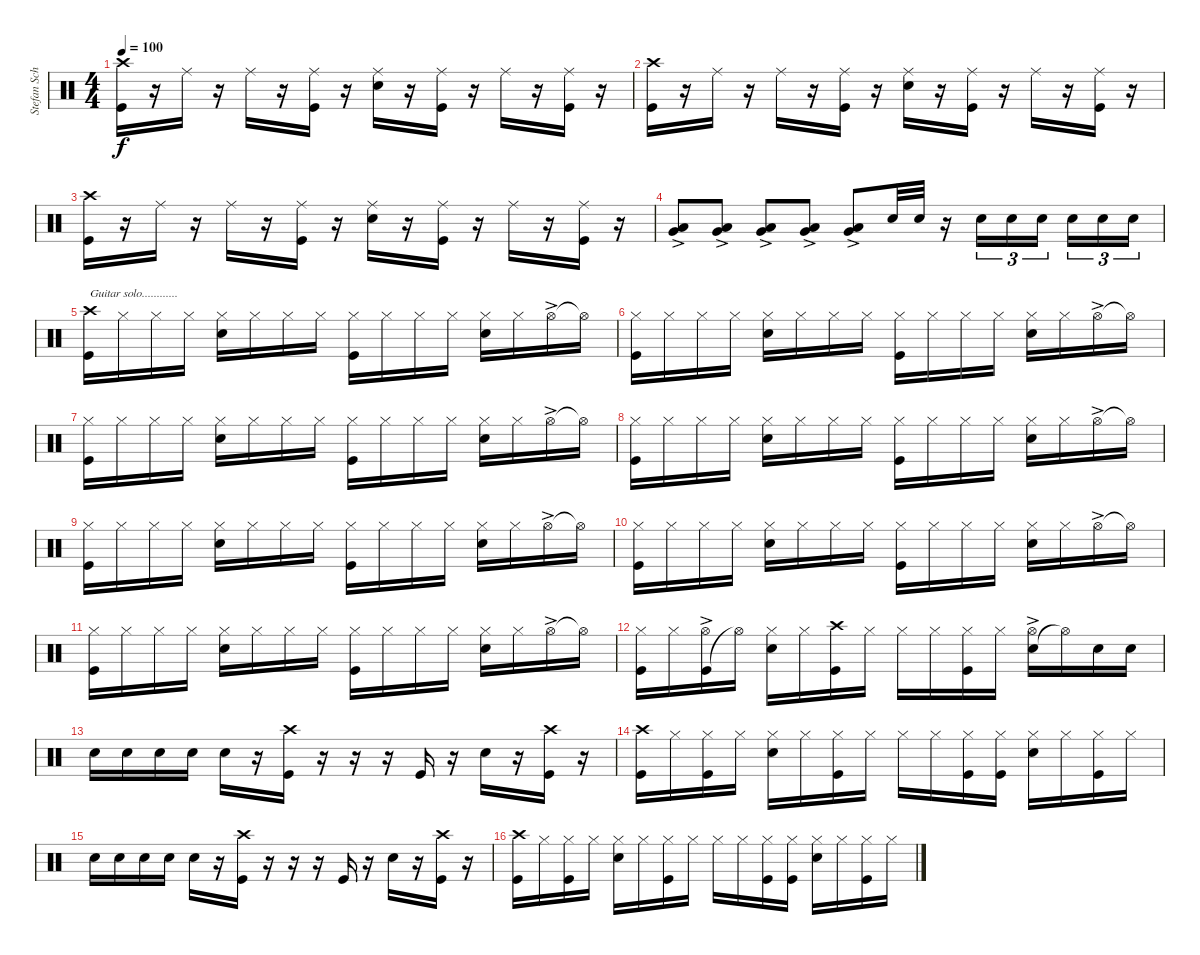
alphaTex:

\track ("Stefan Schwarzmann" "Stefan Sch") {instrument percussion}
\staff {score}
\articulation defaults
\ts (4 4)
\tempo 100
\clef neutral
\ks c
("Kick (hit)" "Crash high (hit)").16{dy f} r.16 "Ride (middle)".16 r.16 "Ride (middle)".16 r.16 ("Kick (hit)" "Ride (middle)").16 r.16 ("Snare (hit) 2" "Ride (middle)").16 r.16 ("Kick (hit)" "Ride (middle)").16 r.16 "Ride (middle)".16 r.16 ("Kick (hit)" "Ride (middle)").16 r.16 |
("Kick (hit)" "Crash high (hit)").16 r.16 "Ride (middle)".16 r.16 "Ride (middle)".16 r.16 ("Kick (hit)" "Ride (middle)").16 r.16 ("Snare (hit) 2" "Ride (middle)").16 r.16 ("Kick (hit)" "Ride (middle)").16 r.16 "Ride (middle)".16 r.16 ("Kick (hit)" "Ride (middle)").16 r.16 |
("Kick (hit)" "Crash high (hit)").16 r.16 "Ride (middle)".16 r.16 "Ride (middle)".16 r.16 ("Kick (hit)" "Ride (middle)").16 r.16 ("Snare (hit) 2" "Ride (middle)").16 r.16 ("Kick (hit)" "Ride (middle)").16 r.16 "Ride (middle)".16 r.16 ("Kick (hit)" "Ride (middle)").16 r.16 |
("Very Low Tom (hit)"{ac} "Low Floor Tom (hit)"{ac}).8 ("Very Low Tom (hit)"{ac} "Low Floor Tom (hit)"{ac}).8 ("Very Low Tom (hit)"{ac} "Low Floor Tom (hit)"{ac}).8 ("Very Low Tom (hit)"{ac} "Low Floor Tom (hit)"{ac}).8 ("Very Low Tom (hit)"{ac} "Low Floor Tom (hit)"{ac}).8 "Snare (hit) 2".32 "Snare (hit) 2".32 r.16 "Snare (hit) 2".16{tu (3 2)} "Snare (hit) 2".16{tu (3 2)} "Snare (hit) 2".16{tu (3 2)} "Snare (hit) 2".16{tu (3 2)} "Snare (hit) 2".16{tu (3 2)} "Snare (hit) 2".16{tu (3 2)} |
("Kick (hit)" "Crash high (hit)").16{txt "Guitar solo............"} "Hi-Hat (closed)".16 "Hi-Hat (closed)".16 "Hi-Hat (closed)".16 ("Snare (hit) 2" "Hi-Hat (closed)").16 "Hi-Hat (closed)".16 "Hi-Hat (closed)".16 "Hi-Hat (closed)".16 ("Kick (hit)" "Hi-Hat (closed)").16 "Hi-Hat (closed)".16 "Hi-Hat (closed)".16 "Hi-Hat (closed)".16 ("Snare (hit) 2" "Hi-Hat (closed)").16 "Hi-Hat (closed)".16 "Hi-Hat (open)"{ac}.16 "Hi-Hat (open)"{t}.16 |
("Kick (hit)" "Hi-Hat (closed)").16 "Hi-Hat (closed)".16 "Hi-Hat (closed)".16 "Hi-Hat (closed)".16 ("Snare (hit) 2" "Hi-Hat (closed)").16 "Hi-Hat (closed)".16 "Hi-Hat (closed)".16 "Hi-Hat (closed)".16 ("Kick (hit)" "Hi-Hat (closed)").16 "Hi-Hat (closed)".16 "Hi-Hat (closed)".16 "Hi-Hat (closed)".16 ("Snare (hit) 2" "Hi-Hat (closed)").16 "Hi-Hat (closed)".16 "Hi-Hat (open)"{ac}.16 "Hi-Hat (open)"{t}.16 |
("Kick (hit)" "Hi-Hat (closed)").16 "Hi-Hat (closed)".16 "Hi-Hat (closed)".16 "Hi-Hat (closed)".16 ("Snare (hit) 2" "Hi-Hat (closed)").16 "Hi-Hat (closed)".16 "Hi-Hat (closed)".16 "Hi-Hat (closed)".16 ("Kick (hit)" "Hi-Hat (closed)").16 "Hi-Hat (closed)".16 "Hi-Hat (closed)".16 "Hi-Hat (closed)".16 ("Snare (hit) 2" "Hi-Hat (closed)").16 "Hi-Hat (closed)".16 "Hi-Hat (open)"{ac}.16 "Hi-Hat (open)"{t}.16 |
("Kick (hit)" "Hi-Hat (closed)").16 "Hi-Hat (closed)".16 "Hi-Hat (closed)".16 "Hi-Hat (closed)".16 ("Snare (hit) 2" "Hi-Hat (closed)").16 "Hi-Hat (closed)".16 "Hi-Hat (closed)".16 "Hi-Hat (closed)".16 ("Kick (hit)" "Hi-Hat (closed)").16 "Hi-Hat (closed)".16 "Hi-Hat (closed)".16 "Hi-Hat (closed)".16 ("Snare (hit) 2" "Hi-Hat (closed)").16 "Hi-Hat (closed)".16 "Hi-Hat (open)"{ac}.16 "Hi-Hat (open)"{t}.16 |
("Kick (hit)" "Hi-Hat (closed)").16 "Hi-Hat (closed)".16 "Hi-Hat (closed)".16 "Hi-Hat (closed)".16 ("Snare (hit) 2" "Hi-Hat (closed)").16 "Hi-Hat (closed)".16 "Hi-Hat (closed)".16 "Hi-Hat (closed)".16 ("Kick (hit)" "Hi-Hat (closed)").16 "Hi-Hat (closed)".16 "Hi-Hat (closed)".16 "Hi-Hat (closed)".16 ("Snare (hit) 2" "Hi-Hat (closed)").16 "Hi-Hat (closed)".16 "Hi-Hat (open)"{ac}.16 "Hi-Hat (open)"{t}.16 |
("Kick (hit)" "Hi-Hat (closed)").16 "Hi-Hat (closed)".16 "Hi-Hat (closed)".16 "Hi-Hat (closed)".16 ("Snare (hit) 2" "Hi-Hat (closed)").16 "Hi-Hat (closed)".16 "Hi-Hat (closed)".16 "Hi-Hat (closed)".16 ("Kick (hit)" "Hi-Hat (closed)").16 "Hi-Hat (closed)".16 "Hi-Hat (closed)".16 "Hi-Hat (closed)".16 ("Snare (hit) 2" "Hi-Hat (closed)").16 "Hi-Hat (closed)".16 "Hi-Hat (open)"{ac}.16 "Hi-Hat (open)"{t}.16 |
("Kick (hit)" "Hi-Hat (closed)").16 "Hi-Hat (closed)".16 "Hi-Hat (closed)".16 "Hi-Hat (closed)".16 ("Snare (hit) 2" "Hi-Hat (closed)").16 "Hi-Hat (closed)".16 "Hi-Hat (closed)".16 "Hi-Hat (closed)".16 ("Kick (hit)" "Hi-Hat (closed)").16 "Hi-Hat (closed)".16 "Hi-Hat (closed)".16 "Hi-Hat (closed)".16 ("Snare (hit) 2" "Hi-Hat (closed)").16 "Hi-Hat (closed)".16 "Hi-Hat (open)"{ac}.16 "Hi-Hat (open)"{t}.16 |
("Kick (hit)" "Hi-Hat (closed)").16 "Hi-Hat (closed)".16 ("Kick (hit)" "Hi-Hat (open)"{ac}).16 "Hi-Hat (open)"{t}.16 ("Snare (hit) 2" "Hi-Hat (closed)").16 "Hi-Hat (closed)".16 ("Kick (hit)" "Crash high (hit)").16 "Hi-Hat (closed)".16 "Hi-Hat (closed)".16 "Hi-Hat (closed)".16 ("Hi-Hat (closed)" "Kick (hit)").16 "Hi-Hat (closed)".16 ("Snare (hit) 2" "Hi-Hat (open)"{ac}).16 "Hi-Hat (open)"{t}.16 "Snare (hit) 2".16 "Snare (hit) 2".16 |
"Snare (hit) 2".16 "Snare (hit) 2".16 "Snare (hit) 2".16 "Snare (hit) 2".16 "Snare (hit) 2".16 r.16 ("Kick (hit)" "Crash high (hit)").16 r.16 r.16 r.16 "Kick (hit)".16 r.16 "Snare (hit) 2".16 r.16 ("Kick (hit)" "Crash high (hit)").16 r.16 |
("Kick (hit)" "Crash high (hit)").16 "Hi-Hat (closed)".16 ("Hi-Hat (closed)" "Kick (hit)").16 "Hi-Hat (closed)".16 ("Snare (hit) 2" "Hi-Hat (closed)").16 "Hi-Hat (closed)".16 ("Hi-Hat (closed)" "Kick (hit)").16 "Hi-Hat (closed)".16 "Hi-Hat (closed)".16 "Hi-Hat (closed)".16 ("Hi-Hat (closed)" "Kick (hit)").16 ("Hi-Hat (closed)" "Kick (hit)").16 ("Snare (hit) 2" "Hi-Hat (closed)").16 "Hi-Hat (closed)".16 ("Hi-Hat (closed)" "Kick (hit)").16 "Hi-Hat (closed)".16 |
"Snare (hit) 2".16 "Snare (hit) 2".16 "Snare (hit) 2".16 "Snare (hit) 2".16 "Snare (hit) 2".16 r.16 ("Kick (hit)" "Crash high (hit)").16 r.16 r.16 r.16 "Kick (hit)".16 r.16 "Snare (hit) 2".16 r.16 ("Kick (hit)" "Crash high (hit)").16 r.16 |
("Kick (hit)" "Crash high (hit)").16 "Hi-Hat (closed)".16 ("Hi-Hat (closed)" "Kick (hit)").16 "Hi-Hat (closed)".16 ("Snare (hit) 2" "Hi-Hat (closed)").16 "Hi-Hat (closed)".16 ("Hi-Hat (closed)" "Kick (hit)").16 "Hi-Hat (closed)".16 "Hi-Hat (closed)".16 "Hi-Hat (closed)".16 ("Hi-Hat (closed)" "Kick (hit)").16 ("Hi-Hat (closed)" "Kick (hit)").16 ("Snare (hit) 2" "Hi-Hat (closed)").16 "Hi-Hat (closed)".16 ("Hi-Hat (closed)" "Kick (hit)").16 "Hi-Hat (closed)".16
